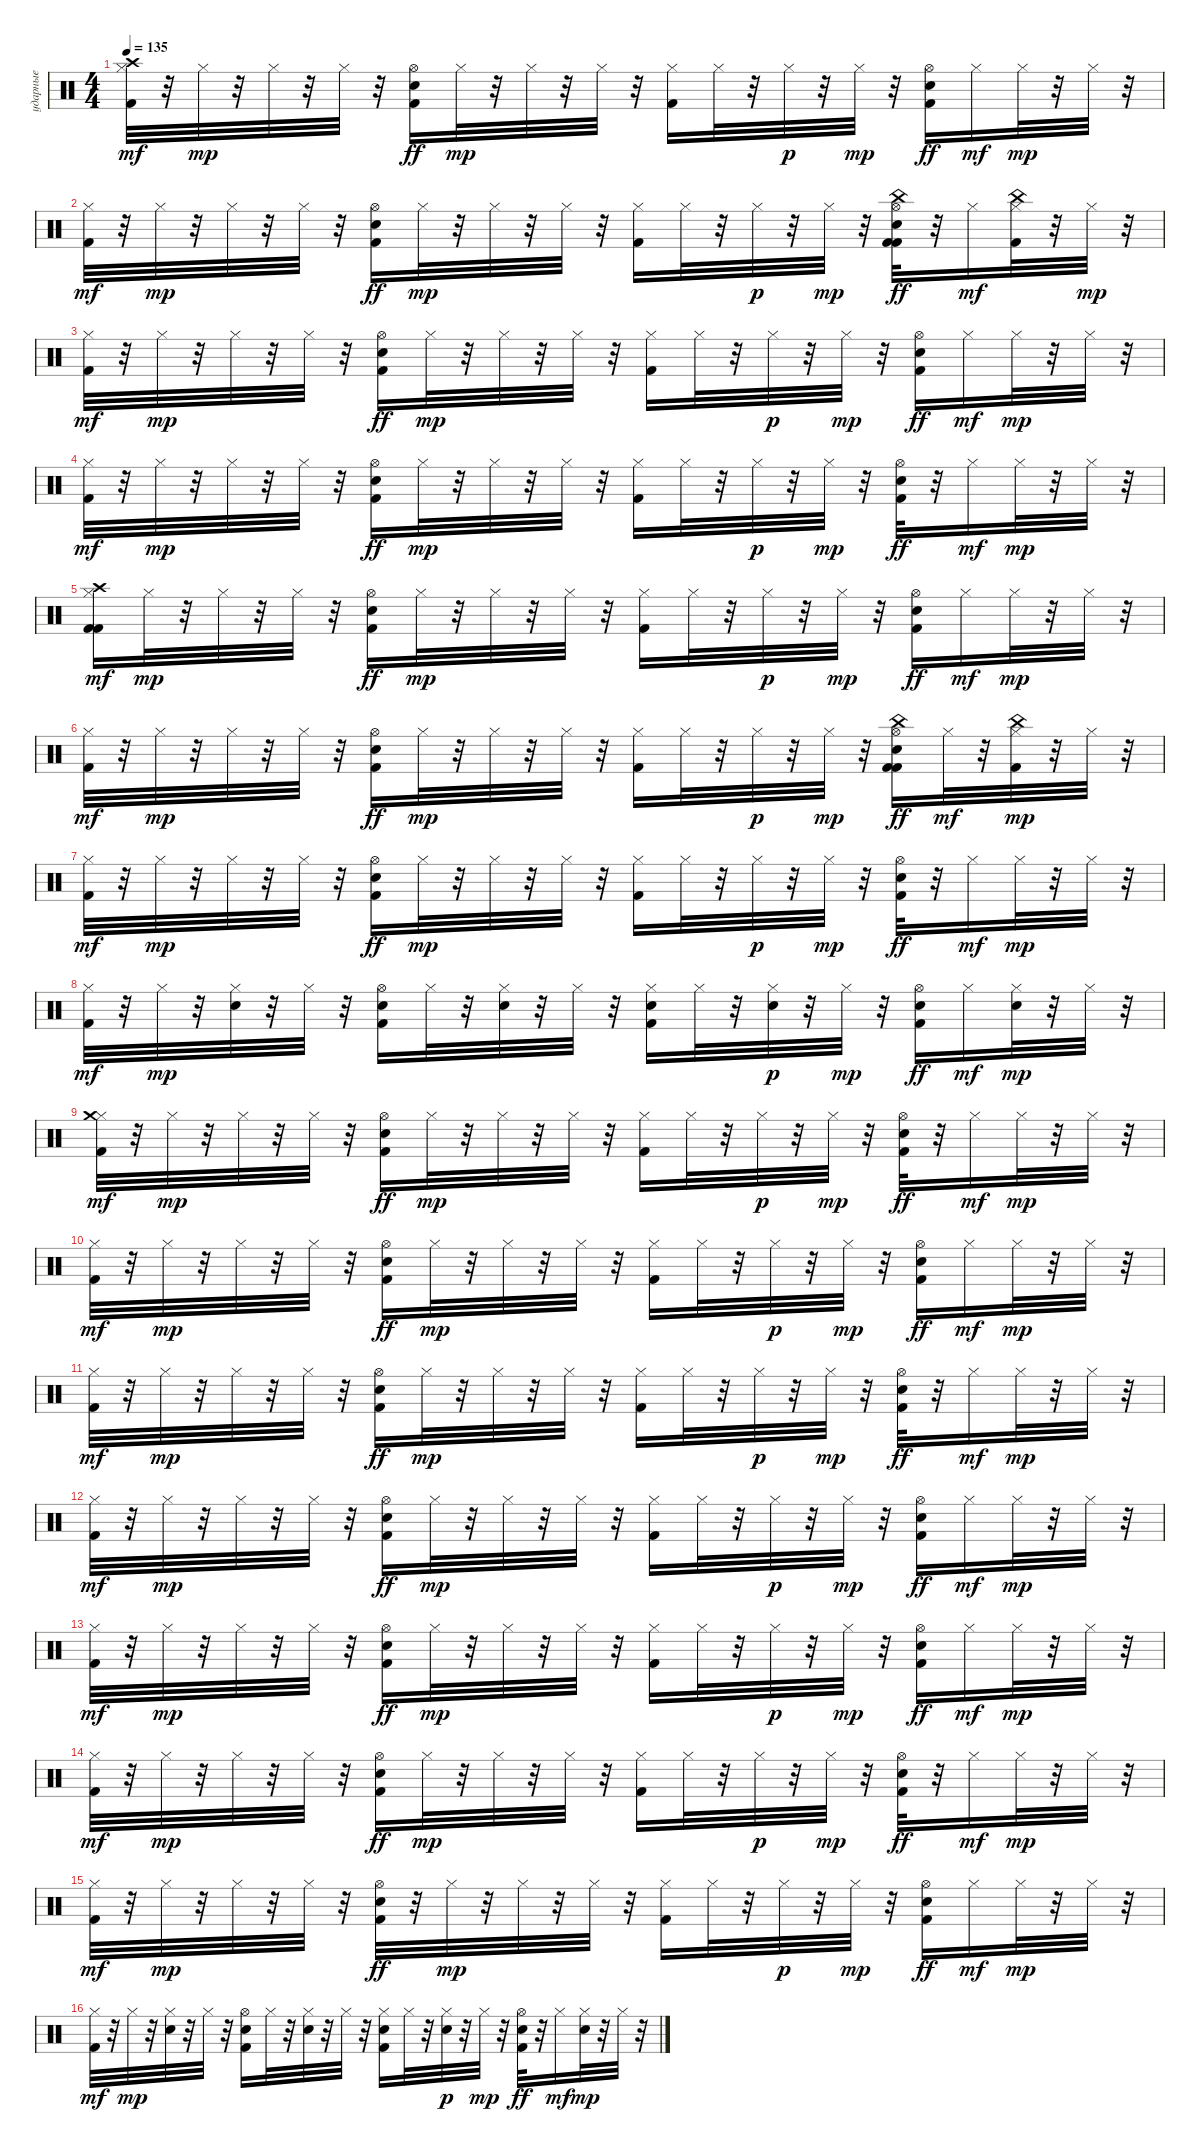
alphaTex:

\track ("ударные" "ударные") {instrument percussion}
\staff {score}
\articulation defaults
\ts (4 4)
\tempo 135
\clef neutral
\ks c
("Kick (hit) 2" "Hi-Hat (closed)" "Crash high (hit)").32{dy mf} r.32 "Hi-Hat (closed)".32{dy mp} r.32 "Hi-Hat (closed)".32 r.32 "Hi-Hat (closed)".32 r.32 ("Kick (hit) 2" "Snare (hit) 2" "Hi-Hat (open)").16{dy ff} "Hi-Hat (closed)".32{dy mp} r.32 "Hi-Hat (closed)".32 r.32 "Hi-Hat (closed)".32 r.32 ("Kick (hit) 2" "Hi-Hat (closed)").16 "Hi-Hat (closed)".32 r.32 "Hi-Hat (closed)".32{dy p} r.32 "Hi-Hat (closed)".32{dy mp} r.32 ("Kick (hit) 2" "Snare (hit) 2" "Hi-Hat (open)").16{dy ff} "Hi-Hat (closed)".16{dy mf} "Hi-Hat (closed)".32{dy mp} r.32 "Hi-Hat (closed)".32 r.32 |
("Kick (hit) 2" "Hi-Hat (closed)").32{dy mf} r.32 "Hi-Hat (closed)".32{dy mp} r.32 "Hi-Hat (closed)".32 r.32 "Hi-Hat (closed)".32 r.32 ("Kick (hit) 2" "Snare (hit) 2" "Hi-Hat (open)").16{dy ff} "Hi-Hat (closed)".32{dy mp} r.32 "Hi-Hat (closed)".32 r.32 "Hi-Hat (closed)".32 r.32 ("Kick (hit) 2" "Hi-Hat (closed)").16 "Hi-Hat (closed)".32 r.32 "Hi-Hat (closed)".32{dy p} r.32 "Hi-Hat (closed)".32{dy mp} r.32 ("Kick (hit) 2" "Kick (hit) 2" "Hi-Hat (open)" "Snare (hit) 2" "China (hit)").32{dy ff} r.32 "Hi-Hat (closed)".16{dy mf} ("Kick (hit) 2" "Hi-Hat (closed)" "China (hit)").32 r.32 "Hi-Hat (closed)".32{dy mp} r.32 |
("Kick (hit) 2" "Hi-Hat (closed)").32{dy mf} r.32 "Hi-Hat (closed)".32{dy mp} r.32 "Hi-Hat (closed)".32 r.32 "Hi-Hat (closed)".32 r.32 ("Kick (hit) 2" "Snare (hit) 2" "Hi-Hat (open)").16{dy ff} "Hi-Hat (closed)".32{dy mp} r.32 "Hi-Hat (closed)".32 r.32 "Hi-Hat (closed)".32 r.32 ("Kick (hit) 2" "Hi-Hat (closed)").16 "Hi-Hat (closed)".32 r.32 "Hi-Hat (closed)".32{dy p} r.32 "Hi-Hat (closed)".32{dy mp} r.32 ("Kick (hit) 2" "Snare (hit) 2" "Hi-Hat (open)").16{dy ff} "Hi-Hat (closed)".16{dy mf} "Hi-Hat (closed)".32{dy mp} r.32 "Hi-Hat (closed)".32 r.32 |
("Kick (hit) 2" "Hi-Hat (closed)").32{dy mf} r.32 "Hi-Hat (closed)".32{dy mp} r.32 "Hi-Hat (closed)".32 r.32 "Hi-Hat (closed)".32 r.32 ("Kick (hit) 2" "Snare (hit) 2" "Hi-Hat (open)").16{dy ff} "Hi-Hat (closed)".32{dy mp} r.32 "Hi-Hat (closed)".32 r.32 "Hi-Hat (closed)".32 r.32 ("Kick (hit) 2" "Hi-Hat (closed)").16 "Hi-Hat (closed)".32 r.32 "Hi-Hat (closed)".32{dy p} r.32 "Hi-Hat (closed)".32{dy mp} r.32 ("Kick (hit) 2" "Snare (hit) 2" "Hi-Hat (open)").32{dy ff} r.32 "Hi-Hat (closed)".16{dy mf} "Hi-Hat (closed)".32{dy mp} r.32 "Hi-Hat (closed)".32 r.32 |
("Kick (hit) 2" "Hi-Hat (closed)" "Kick (hit) 2" "Crash high (hit)").16{dy mf} "Hi-Hat (closed)".32{dy mp} r.32 "Hi-Hat (closed)".32 r.32 "Hi-Hat (closed)".32 r.32 ("Kick (hit) 2" "Snare (hit) 2" "Hi-Hat (open)").16{dy ff} "Hi-Hat (closed)".32{dy mp} r.32 "Hi-Hat (closed)".32 r.32 "Hi-Hat (closed)".32 r.32 ("Kick (hit) 2" "Hi-Hat (closed)").16 "Hi-Hat (closed)".32 r.32 "Hi-Hat (closed)".32{dy p} r.32 "Hi-Hat (closed)".32{dy mp} r.32 ("Kick (hit) 2" "Snare (hit) 2" "Hi-Hat (open)").16{dy ff} "Hi-Hat (closed)".16{dy mf} "Hi-Hat (closed)".32{dy mp} r.32 "Hi-Hat (closed)".32 r.32 |
("Kick (hit) 2" "Hi-Hat (closed)").32{dy mf} r.32 "Hi-Hat (closed)".32{dy mp} r.32 "Hi-Hat (closed)".32 r.32 "Hi-Hat (closed)".32 r.32 ("Kick (hit) 2" "Snare (hit) 2" "Hi-Hat (open)").16{dy ff} "Hi-Hat (closed)".32{dy mp} r.32 "Hi-Hat (closed)".32 r.32 "Hi-Hat (closed)".32 r.32 ("Kick (hit) 2" "Hi-Hat (closed)").16 "Hi-Hat (closed)".32 r.32 "Hi-Hat (closed)".32{dy p} r.32 "Hi-Hat (closed)".32{dy mp} r.32 ("Kick (hit) 2" "Kick (hit) 2" "Hi-Hat (open)" "China (hit)" "Snare (hit) 2").16{dy ff} "Hi-Hat (closed)".32{dy mf} r.32 ("Kick (hit) 2" "Hi-Hat (closed)" "China (hit)").32{dy mp} r.32 "Hi-Hat (closed)".32 r.32 |
("Kick (hit) 2" "Hi-Hat (closed)").32{dy mf} r.32 "Hi-Hat (closed)".32{dy mp} r.32 "Hi-Hat (closed)".32 r.32 "Hi-Hat (closed)".32 r.32 ("Kick (hit) 2" "Snare (hit) 2" "Hi-Hat (open)").16{dy ff} "Hi-Hat (closed)".32{dy mp} r.32 "Hi-Hat (closed)".32 r.32 "Hi-Hat (closed)".32 r.32 ("Kick (hit) 2" "Hi-Hat (closed)").16 "Hi-Hat (closed)".32 r.32 "Hi-Hat (closed)".32{dy p} r.32 "Hi-Hat (closed)".32{dy mp} r.32 ("Kick (hit) 2" "Snare (hit) 2" "Hi-Hat (open)").32{dy ff} r.32 "Hi-Hat (closed)".16{dy mf} "Hi-Hat (closed)".32{dy mp} r.32 "Hi-Hat (closed)".32 r.32 |
("Kick (hit) 2" "Hi-Hat (closed)").32{dy mf} r.32 "Hi-Hat (closed)".32{dy mp} r.32 ("Snare (hit) 2" "Hi-Hat (closed)").32 r.32 "Hi-Hat (closed)".32 r.32 ("Kick (hit) 2" "Snare (hit) 2" "Hi-Hat (open)").16 "Hi-Hat (closed)".32 r.32 ("Snare (hit) 2" "Hi-Hat (closed)").32 r.32 "Hi-Hat (closed)".32 r.32 ("Kick (hit) 2" "Snare (hit) 2" "Hi-Hat (closed)").16 "Hi-Hat (closed)".32 r.32 ("Snare (hit) 2" "Hi-Hat (closed)").32{dy p} r.32 "Hi-Hat (closed)".32{dy mp} r.32 ("Kick (hit) 2" "Snare (hit) 2" "Hi-Hat (open)").16{dy ff} "Hi-Hat (closed)".16{dy mf} ("Snare (hit) 2" "Hi-Hat (closed)").32{dy mp} r.32 "Hi-Hat (closed)".32 r.32 |
("Kick (hit) 2" "Hi-Hat (closed)" "Crash medium (hit)").32{dy mf} r.32 "Hi-Hat (closed)".32{dy mp} r.32 "Hi-Hat (closed)".32 r.32 "Hi-Hat (closed)".32 r.32 ("Kick (hit) 2" "Snare (hit) 2" "Hi-Hat (open)").16{dy ff} "Hi-Hat (closed)".32{dy mp} r.32 "Hi-Hat (closed)".32 r.32 "Hi-Hat (closed)".32 r.32 ("Kick (hit) 2" "Hi-Hat (closed)").16 "Hi-Hat (closed)".32 r.32 "Hi-Hat (closed)".32{dy p} r.32 "Hi-Hat (closed)".32{dy mp} r.32 ("Kick (hit) 2" "Snare (hit) 2" "Hi-Hat (open)").32{dy ff} r.32 "Hi-Hat (closed)".16{dy mf} "Hi-Hat (closed)".32{dy mp} r.32 "Hi-Hat (closed)".32 r.32 |
("Kick (hit) 2" "Hi-Hat (closed)").32{dy mf} r.32 "Hi-Hat (closed)".32{dy mp} r.32 "Hi-Hat (closed)".32 r.32 "Hi-Hat (closed)".32 r.32 ("Kick (hit) 2" "Snare (hit) 2" "Hi-Hat (open)").16{dy ff} "Hi-Hat (closed)".32{dy mp} r.32 "Hi-Hat (closed)".32 r.32 "Hi-Hat (closed)".32 r.32 ("Kick (hit) 2" "Hi-Hat (closed)").16 "Hi-Hat (closed)".32 r.32 "Hi-Hat (closed)".32{dy p} r.32 "Hi-Hat (closed)".32{dy mp} r.32 ("Kick (hit) 2" "Snare (hit) 2" "Hi-Hat (open)").16{dy ff} "Hi-Hat (closed)".16{dy mf} "Hi-Hat (closed)".32{dy mp} r.32 "Hi-Hat (closed)".32 r.32 |
("Kick (hit) 2" "Hi-Hat (closed)").32{dy mf} r.32 "Hi-Hat (closed)".32{dy mp} r.32 "Hi-Hat (closed)".32 r.32 "Hi-Hat (closed)".32 r.32 ("Kick (hit) 2" "Snare (hit) 2" "Hi-Hat (open)").16{dy ff} "Hi-Hat (closed)".32{dy mp} r.32 "Hi-Hat (closed)".32 r.32 "Hi-Hat (closed)".32 r.32 ("Kick (hit) 2" "Hi-Hat (closed)").16 "Hi-Hat (closed)".32 r.32 "Hi-Hat (closed)".32{dy p} r.32 "Hi-Hat (closed)".32{dy mp} r.32 ("Kick (hit) 2" "Snare (hit) 2" "Hi-Hat (open)").32{dy ff} r.32 "Hi-Hat (closed)".16{dy mf} "Hi-Hat (closed)".32{dy mp} r.32 "Hi-Hat (closed)".32 r.32 |
("Kick (hit) 2" "Hi-Hat (closed)").32{dy mf} r.32 "Hi-Hat (closed)".32{dy mp} r.32 "Hi-Hat (closed)".32 r.32 "Hi-Hat (closed)".32 r.32 ("Kick (hit) 2" "Snare (hit) 2" "Hi-Hat (open)").16{dy ff} "Hi-Hat (closed)".32{dy mp} r.32 "Hi-Hat (closed)".32 r.32 "Hi-Hat (closed)".32 r.32 ("Kick (hit) 2" "Hi-Hat (closed)").16 "Hi-Hat (closed)".32 r.32 "Hi-Hat (closed)".32{dy p} r.32 "Hi-Hat (closed)".32{dy mp} r.32 ("Kick (hit) 2" "Snare (hit) 2" "Hi-Hat (open)").16{dy ff} "Hi-Hat (closed)".16{dy mf} "Hi-Hat (closed)".32{dy mp} r.32 "Hi-Hat (closed)".32 r.32 |
("Kick (hit) 2" "Hi-Hat (closed)").32{dy mf} r.32 "Hi-Hat (closed)".32{dy mp} r.32 "Hi-Hat (closed)".32 r.32 "Hi-Hat (closed)".32 r.32 ("Kick (hit) 2" "Snare (hit) 2" "Hi-Hat (open)").16{dy ff} "Hi-Hat (closed)".32{dy mp} r.32 "Hi-Hat (closed)".32 r.32 "Hi-Hat (closed)".32 r.32 ("Kick (hit) 2" "Hi-Hat (closed)").16 "Hi-Hat (closed)".32 r.32 "Hi-Hat (closed)".32{dy p} r.32 "Hi-Hat (closed)".32{dy mp} r.32 ("Kick (hit) 2" "Snare (hit) 2" "Hi-Hat (open)").16{dy ff} "Hi-Hat (closed)".16{dy mf} "Hi-Hat (closed)".32{dy mp} r.32 "Hi-Hat (closed)".32 r.32 |
("Kick (hit) 2" "Hi-Hat (closed)").32{dy mf} r.32 "Hi-Hat (closed)".32{dy mp} r.32 "Hi-Hat (closed)".32 r.32 "Hi-Hat (closed)".32 r.32 ("Kick (hit) 2" "Snare (hit) 2" "Hi-Hat (open)").16{dy ff} "Hi-Hat (closed)".32{dy mp} r.32 "Hi-Hat (closed)".32 r.32 "Hi-Hat (closed)".32 r.32 ("Kick (hit) 2" "Hi-Hat (closed)").16 "Hi-Hat (closed)".32 r.32 "Hi-Hat (closed)".32{dy p} r.32 "Hi-Hat (closed)".32{dy mp} r.32 ("Kick (hit) 2" "Snare (hit) 2" "Hi-Hat (open)").32{dy ff} r.32 "Hi-Hat (closed)".16{dy mf} "Hi-Hat (closed)".32{dy mp} r.32 "Hi-Hat (closed)".32 r.32 |
("Kick (hit) 2" "Hi-Hat (closed)").32{dy mf} r.32 "Hi-Hat (closed)".32{dy mp} r.32 "Hi-Hat (closed)".32 r.32 "Hi-Hat (closed)".32 r.32 ("Kick (hit) 2" "Snare (hit) 2" "Hi-Hat (open)").32{dy ff} r.32 "Hi-Hat (closed)".32{dy mp} r.32 "Hi-Hat (closed)".32 r.32 "Hi-Hat (closed)".32 r.32 ("Kick (hit) 2" "Hi-Hat (closed)").16 "Hi-Hat (closed)".32 r.32 "Hi-Hat (closed)".32{dy p} r.32 "Hi-Hat (closed)".32{dy mp} r.32 ("Kick (hit) 2" "Snare (hit) 2" "Hi-Hat (open)").16{dy ff} "Hi-Hat (closed)".16{dy mf} "Hi-Hat (closed)".32{dy mp} r.32 "Hi-Hat (closed)".32 r.32 |
("Kick (hit) 2" "Hi-Hat (closed)").32{dy mf} r.32 "Hi-Hat (closed)".32{dy mp} r.32 ("Snare (hit) 2" "Hi-Hat (closed)").32 r.32 "Hi-Hat (closed)".32 r.32 ("Kick (hit) 2" "Snare (hit) 2" "Hi-Hat (open)").16 "Hi-Hat (closed)".32 r.32 ("Snare (hit) 2" "Hi-Hat (closed)").32 r.32 "Hi-Hat (closed)".32 r.32 ("Kick (hit) 2" "Snare (hit) 2" "Hi-Hat (closed)").16 "Hi-Hat (closed)".32 r.32 ("Snare (hit) 2" "Hi-Hat (closed)").32{dy p} r.32 "Hi-Hat (closed)".32{dy mp} r.32 ("Kick (hit) 2" "Snare (hit) 2" "Hi-Hat (open)").32{dy ff} r.32 "Hi-Hat (closed)".16{dy mf} ("Snare (hit) 2" "Hi-Hat (closed)").32{dy mp} r.32 "Hi-Hat (closed)".32 r.32
